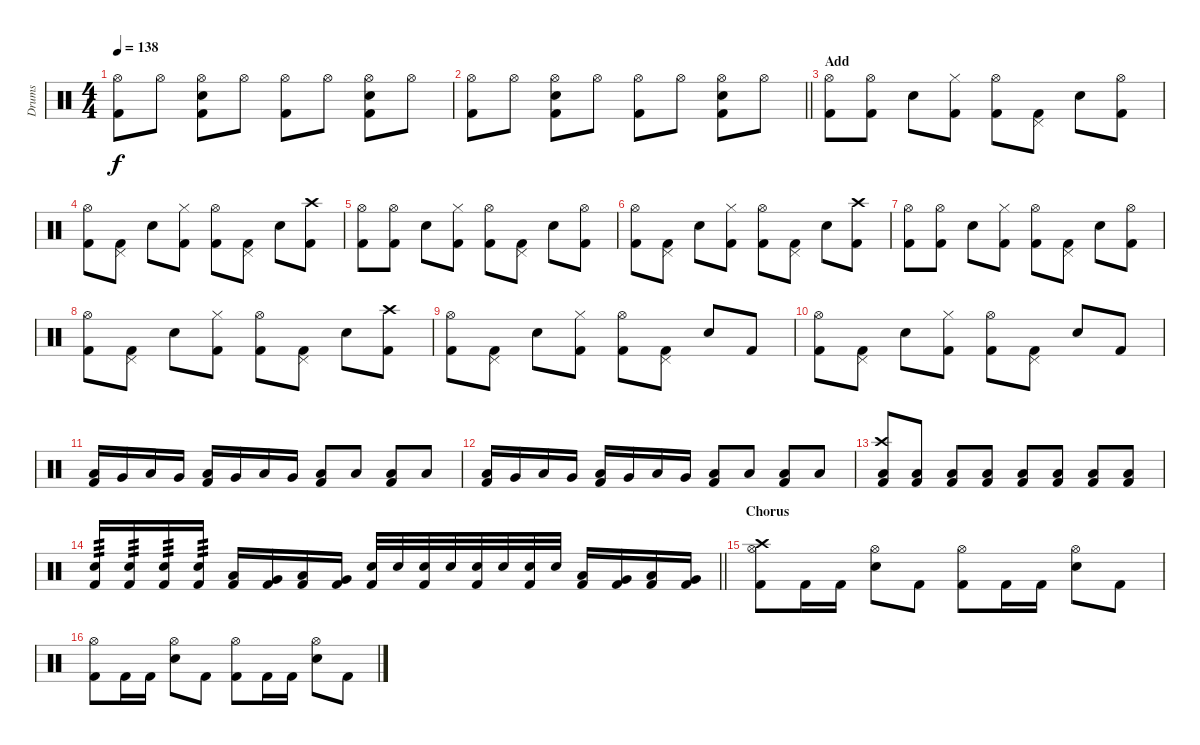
\track ("Drums" "Drums") {instrument percussion}
\staff {score}
\articulation defaults
\ts (4 4)
\tempo 138
\clef neutral
\ks c
("Hi-Hat (open)" "Kick (hit) 2").8{dy f} "Hi-Hat (open)".8 ("Electric Snare (hit)" "Hi-Hat (open)" "Kick (hit) 2").8 "Hi-Hat (open)".8 ("Hi-Hat (open)" "Kick (hit) 2").8 "Hi-Hat (open)".8 ("Electric Snare (hit)" "Hi-Hat (open)" "Kick (hit) 2").8 "Hi-Hat (open)".8 |
\barLineRight lightlight
("Hi-Hat (open)" "Kick (hit) 2").8 "Hi-Hat (open)".8 ("Electric Snare (hit)" "Hi-Hat (open)" "Kick (hit) 2").8 "Hi-Hat (open)".8 ("Hi-Hat (open)" "Kick (hit) 2").8 "Hi-Hat (open)".8 ("Electric Snare (hit)" "Hi-Hat (open)" "Kick (hit) 2").8 "Hi-Hat (open)".8 |
\section ("" "Add")
("Hi-Hat (open)" "Kick (hit) 2").8 ("Hi-Hat (open)" "Kick (hit) 2").8 "Electric Snare (hit)".8 ("Hi-Hat (closed)" "Kick (hit) 2").8 ("Hi-Hat (open)" "Kick (hit) 2").8 ("Pedal Hi-Hat (hit)" "Kick (hit) 2").8 "Electric Snare (hit)".8 ("Hi-Hat (open)" "Kick (hit) 2").8 |
("Hi-Hat (open)" "Kick (hit) 2").8 ("Pedal Hi-Hat (hit)" "Kick (hit) 2").8 "Electric Snare (hit)".8 ("Hi-Hat (closed)" "Kick (hit) 2").8 ("Hi-Hat (open)" "Kick (hit) 2").8 ("Pedal Hi-Hat (hit)" "Kick (hit) 2").8 "Electric Snare (hit)".8 ("Crash high (hit)" "Kick (hit) 2").8 |
("Hi-Hat (open)" "Kick (hit) 2").8 ("Hi-Hat (open)" "Kick (hit) 2").8 "Electric Snare (hit)".8 ("Hi-Hat (closed)" "Kick (hit) 2").8 ("Hi-Hat (open)" "Kick (hit) 2").8 ("Pedal Hi-Hat (hit)" "Kick (hit) 2").8 "Electric Snare (hit)".8 ("Hi-Hat (open)" "Kick (hit) 2").8 |
("Hi-Hat (open)" "Kick (hit) 2").8 ("Pedal Hi-Hat (hit)" "Kick (hit) 2").8 "Electric Snare (hit)".8 ("Hi-Hat (closed)" "Kick (hit) 2").8 ("Hi-Hat (open)" "Kick (hit) 2").8 ("Pedal Hi-Hat (hit)" "Kick (hit) 2").8 "Electric Snare (hit)".8 ("Crash high (hit)" "Kick (hit) 2").8 |
("Hi-Hat (open)" "Kick (hit) 2").8 ("Hi-Hat (open)" "Kick (hit) 2").8 "Electric Snare (hit)".8 ("Hi-Hat (closed)" "Kick (hit) 2").8 ("Hi-Hat (open)" "Kick (hit) 2").8 ("Pedal Hi-Hat (hit)" "Kick (hit) 2").8 "Electric Snare (hit)".8 ("Hi-Hat (open)" "Kick (hit) 2").8 |
("Hi-Hat (open)" "Kick (hit) 2").8 ("Pedal Hi-Hat (hit)" "Kick (hit) 2").8 "Electric Snare (hit)".8 ("Hi-Hat (closed)" "Kick (hit) 2").8 ("Hi-Hat (open)" "Kick (hit) 2").8 ("Pedal Hi-Hat (hit)" "Kick (hit) 2").8 "Electric Snare (hit)".8 ("Crash high (hit)" "Kick (hit) 2").8 |
("Hi-Hat (open)" "Kick (hit) 2").8 ("Pedal Hi-Hat (hit)" "Kick (hit) 2").8 "Electric Snare (hit)".8 ("Hi-Hat (closed)" "Kick (hit) 2").8 ("Hi-Hat (open)" "Kick (hit) 2").8 ("Pedal Hi-Hat (hit)" "Kick (hit) 2").8 "Electric Snare (hit)".8 "Kick (hit) 2".8 |
("Hi-Hat (open)" "Kick (hit) 2").8 ("Pedal Hi-Hat (hit)" "Kick (hit) 2").8 "Electric Snare (hit)".8 ("Hi-Hat (closed)" "Kick (hit) 2").8 ("Hi-Hat (open)" "Kick (hit) 2").8 ("Pedal Hi-Hat (hit)" "Kick (hit) 2").8 "Electric Snare (hit)".8 "Kick (hit) 2".8 |
("Low Floor Tom (hit)" "Kick (hit) 2").16 "Very Low Tom (hit)".16 "Low Floor Tom (hit)".16 "Very Low Tom (hit)".16 ("Low Floor Tom (hit)" "Kick (hit) 2").16 "Very Low Tom (hit)".16 "Low Floor Tom (hit)".16 "Very Low Tom (hit)".16 ("Low Floor Tom (hit)" "Kick (hit) 2").8 "Low Floor Tom (hit)".8 ("Low Floor Tom (hit)" "Kick (hit) 2").8 "Low Floor Tom (hit)".8 |
("Low Floor Tom (hit)" "Kick (hit) 2").16 "Very Low Tom (hit)".16 "Low Floor Tom (hit)".16 "Very Low Tom (hit)".16 ("Low Floor Tom (hit)" "Kick (hit) 2").16 "Very Low Tom (hit)".16 "Low Floor Tom (hit)".16 "Very Low Tom (hit)".16 ("Low Floor Tom (hit)" "Kick (hit) 2").8 "Low Floor Tom (hit)".8 ("Low Floor Tom (hit)" "Kick (hit) 2").8 "Low Floor Tom (hit)".8 |
("Crash high (hit)" "Low Floor Tom (hit)" "Kick (hit) 2").8 ("Low Floor Tom (hit)" "Kick (hit) 2").8 ("Low Floor Tom (hit)" "Kick (hit) 2").8 ("Low Floor Tom (hit)" "Kick (hit) 2").8 ("Low Floor Tom (hit)" "Kick (hit) 2").8 ("Low Floor Tom (hit)" "Kick (hit) 2").8 ("Low Floor Tom (hit)" "Kick (hit) 2").8 ("Low Floor Tom (hit)" "Kick (hit) 2").8 |
\barLineRight lightlight
("Electric Snare (hit)" "Kick (hit) 2").16{tp 3} ("Electric Snare (hit)" "Kick (hit) 2").16{tp 3} ("Electric Snare (hit)" "Kick (hit) 2").16{tp 3} ("Electric Snare (hit)" "Kick (hit) 2").16{tp 3} ("Low Floor Tom (hit)" "Kick (hit) 2").16 ("Very Low Tom (hit)" "Kick (hit) 2").16 ("Low Tom (hit)" "Kick (hit) 2").16 ("Very Low Tom (hit)" "Kick (hit) 2").16 ("Electric Snare (hit)" "Kick (hit) 2").32 "Electric Snare (hit)".32 ("Electric Snare (hit)" "Kick (hit) 2").32 "Electric Snare (hit)".32 ("Electric Snare (hit)" "Kick (hit) 2").32 "Electric Snare (hit)".32 ("Electric Snare (hit)" "Kick (hit) 2").32 "Electric Snare (hit)".32 ("Low Floor Tom (hit)" "Kick (hit) 2").16 ("Very Low Tom (hit)" "Kick (hit) 2").16 ("Low Tom (hit)" "Kick (hit) 2").16 ("Very Low Tom (hit)" "Kick (hit) 2").16 |
\section ("" "Chorus")
("Crash high (hit)" "Hi-Hat (open)" "Kick (hit) 2").8 "Kick (hit) 2".16 "Kick (hit) 2".16 ("Hi-Hat (open)" "Electric Snare (hit)").8 "Kick (hit) 2".8 ("Hi-Hat (open)" "Kick (hit) 2").8 "Kick (hit) 2".16 "Kick (hit) 2".16 ("Hi-Hat (open)" "Electric Snare (hit)").8 "Kick (hit) 2".8 |
("Hi-Hat (open)" "Kick (hit) 2").8 "Kick (hit) 2".16 "Kick (hit) 2".16 ("Hi-Hat (open)" "Electric Snare (hit)").8 "Kick (hit) 2".8 ("Hi-Hat (open)" "Kick (hit) 2").8 "Kick (hit) 2".16 "Kick (hit) 2".16 ("Hi-Hat (open)" "Electric Snare (hit)").8 "Kick (hit) 2".8
